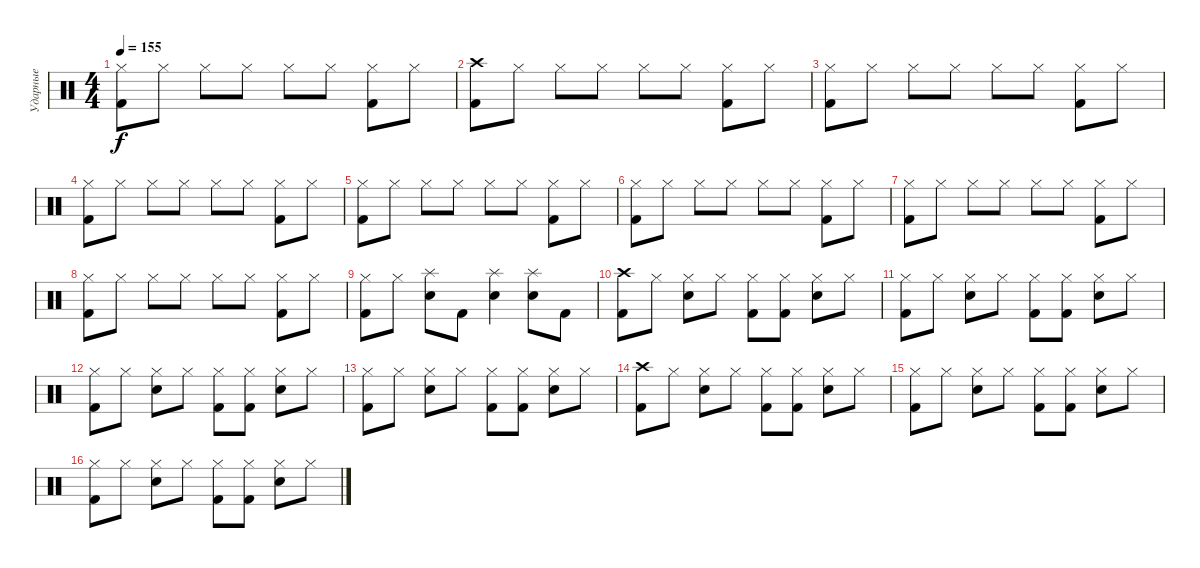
\track ("Ударные" "Ударные") {instrument percussion}
\staff {score}
\articulation defaults
\ts (4 4)
\tempo 155
\clef neutral
\ks c
("Hi-Hat (closed)" "Kick (hit) 2").8{dy f} "Hi-Hat (closed)".8 "Hi-Hat (closed)".8 "Hi-Hat (closed)".8 "Hi-Hat (closed)".8 "Hi-Hat (closed)".8 ("Hi-Hat (closed)" "Kick (hit) 2").8 "Hi-Hat (closed)".8 |
("Crash high (hit)" "Kick (hit) 2").8 "Hi-Hat (closed)".8 "Hi-Hat (closed)".8 "Hi-Hat (closed)".8 "Hi-Hat (closed)".8 "Hi-Hat (closed)".8 ("Hi-Hat (closed)" "Kick (hit) 2").8 "Hi-Hat (closed)".8 |
("Hi-Hat (closed)" "Kick (hit) 2").8 "Hi-Hat (closed)".8 "Hi-Hat (closed)".8 "Hi-Hat (closed)".8 "Hi-Hat (closed)".8 "Hi-Hat (closed)".8 ("Hi-Hat (closed)" "Kick (hit) 2").8 "Hi-Hat (closed)".8 |
("Hi-Hat (closed)" "Kick (hit) 2").8 "Hi-Hat (closed)".8 "Hi-Hat (closed)".8 "Hi-Hat (closed)".8 "Hi-Hat (closed)".8 "Hi-Hat (closed)".8 ("Hi-Hat (closed)" "Kick (hit) 2").8 "Hi-Hat (closed)".8 |
("Hi-Hat (closed)" "Kick (hit) 2").8 "Hi-Hat (closed)".8 "Hi-Hat (closed)".8 "Hi-Hat (closed)".8 "Hi-Hat (closed)".8 "Hi-Hat (closed)".8 ("Hi-Hat (closed)" "Kick (hit) 2").8 "Hi-Hat (closed)".8 |
("Hi-Hat (closed)" "Kick (hit) 2").8 "Hi-Hat (closed)".8 "Hi-Hat (closed)".8 "Hi-Hat (closed)".8 "Hi-Hat (closed)".8 "Hi-Hat (closed)".8 ("Hi-Hat (closed)" "Kick (hit) 2").8 "Hi-Hat (closed)".8 |
("Hi-Hat (closed)" "Kick (hit) 2").8 "Hi-Hat (closed)".8 "Hi-Hat (closed)".8 "Hi-Hat (closed)".8 "Hi-Hat (closed)".8 "Hi-Hat (closed)".8 ("Hi-Hat (closed)" "Kick (hit) 2").8 "Hi-Hat (closed)".8 |
("Hi-Hat (closed)" "Kick (hit) 2").8 "Hi-Hat (closed)".8 "Hi-Hat (closed)".8 "Hi-Hat (closed)".8 "Hi-Hat (closed)".8 "Hi-Hat (closed)".8 ("Hi-Hat (closed)" "Kick (hit) 2").8 "Hi-Hat (closed)".8 |
("Hi-Hat (closed)" "Kick (hit) 2").8 "Hi-Hat (closed)".8 ("Splash (hit)" "Electric Snare (hit)").8 "Kick (hit) 2".8 ("Splash (hit)" "Electric Snare (hit)").4 ("Splash (hit)" "Electric Snare (hit)").8 "Kick (hit) 2".8 |
("Crash high (hit)" "Kick (hit) 2").8 "Hi-Hat (closed)".8 ("Hi-Hat (closed)" "Electric Snare (hit)").8 "Hi-Hat (closed)".8 ("Hi-Hat (closed)" "Kick (hit) 2").8 ("Hi-Hat (closed)" "Kick (hit) 2").8 ("Hi-Hat (closed)" "Electric Snare (hit)").8 "Hi-Hat (closed)".8 |
("Hi-Hat (closed)" "Kick (hit) 2").8 "Hi-Hat (closed)".8 ("Hi-Hat (closed)" "Electric Snare (hit)").8 "Hi-Hat (closed)".8 ("Hi-Hat (closed)" "Kick (hit) 2").8 ("Hi-Hat (closed)" "Kick (hit) 2").8 ("Hi-Hat (closed)" "Electric Snare (hit)").8 "Hi-Hat (closed)".8 |
("Hi-Hat (closed)" "Kick (hit) 2").8 "Hi-Hat (closed)".8 ("Hi-Hat (closed)" "Electric Snare (hit)").8 "Hi-Hat (closed)".8 ("Hi-Hat (closed)" "Kick (hit) 2").8 ("Hi-Hat (closed)" "Kick (hit) 2").8 ("Hi-Hat (closed)" "Electric Snare (hit)").8 "Hi-Hat (closed)".8 |
("Hi-Hat (closed)" "Kick (hit) 2").8 "Hi-Hat (closed)".8 ("Hi-Hat (closed)" "Electric Snare (hit)").8 "Hi-Hat (closed)".8 ("Hi-Hat (closed)" "Kick (hit) 2").8 ("Hi-Hat (closed)" "Kick (hit) 2").8 ("Hi-Hat (closed)" "Electric Snare (hit)").8 "Hi-Hat (closed)".8 |
("Crash high (hit)" "Kick (hit) 2").8 "Hi-Hat (closed)".8 ("Hi-Hat (closed)" "Electric Snare (hit)").8 "Hi-Hat (closed)".8 ("Hi-Hat (closed)" "Kick (hit) 2").8 ("Hi-Hat (closed)" "Kick (hit) 2").8 ("Hi-Hat (closed)" "Electric Snare (hit)").8 "Hi-Hat (closed)".8 |
("Hi-Hat (closed)" "Kick (hit) 2").8 "Hi-Hat (closed)".8 ("Hi-Hat (closed)" "Electric Snare (hit)").8 "Hi-Hat (closed)".8 ("Hi-Hat (closed)" "Kick (hit) 2").8 ("Hi-Hat (closed)" "Kick (hit) 2").8 ("Hi-Hat (closed)" "Electric Snare (hit)").8 "Hi-Hat (closed)".8 |
("Hi-Hat (closed)" "Kick (hit) 2").8 "Hi-Hat (closed)".8 ("Hi-Hat (closed)" "Electric Snare (hit)").8 "Hi-Hat (closed)".8 ("Hi-Hat (closed)" "Kick (hit) 2").8 ("Hi-Hat (closed)" "Kick (hit) 2").8 ("Hi-Hat (closed)" "Electric Snare (hit)").8 "Hi-Hat (closed)".8
